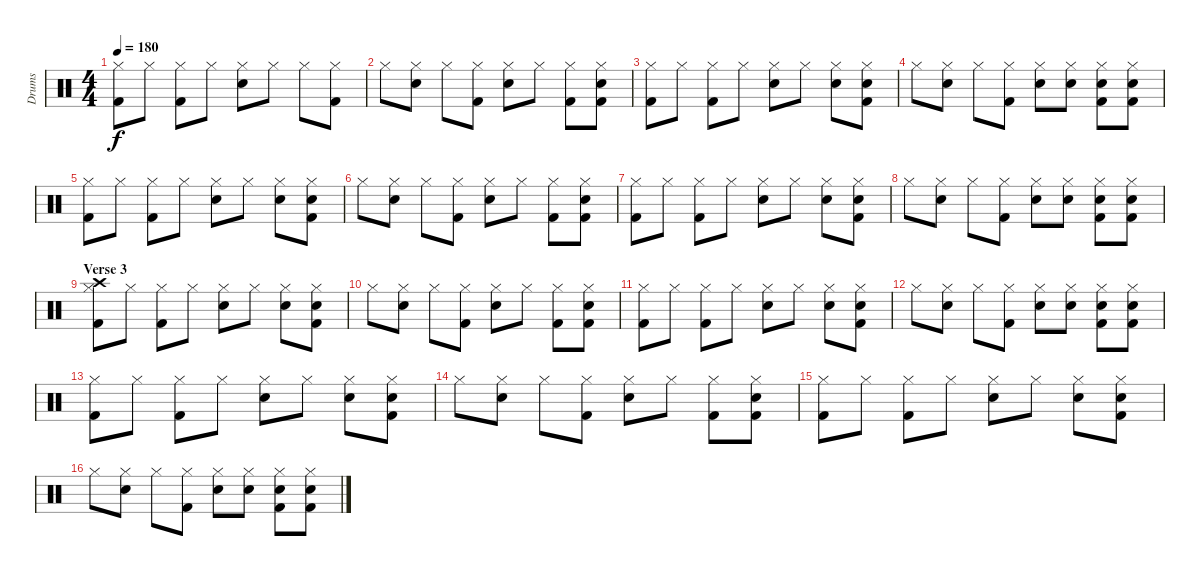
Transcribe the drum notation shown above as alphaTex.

\track ("Drums" "Drums") {instrument percussion}
\staff {score}
\articulation defaults
\ts (4 4)
\tempo 180
\clef neutral
\ks c
("Hi-Hat (closed)" "Kick (hit) 2").8{dy f} "Hi-Hat (closed)".8 ("Hi-Hat (closed)" "Kick (hit) 2").8 "Hi-Hat (closed)".8 ("Hi-Hat (closed)" "Snare (hit) 2").8 "Hi-Hat (closed)".8 "Hi-Hat (closed)".8 ("Hi-Hat (closed)" "Kick (hit) 2").8 |
"Hi-Hat (closed)".8 ("Hi-Hat (closed)" "Snare (hit) 2").8 "Hi-Hat (closed)".8 ("Hi-Hat (closed)" "Kick (hit) 2").8 ("Hi-Hat (closed)" "Snare (hit) 2").8 "Hi-Hat (closed)".8 ("Hi-Hat (closed)" "Kick (hit) 2").8 ("Hi-Hat (closed)" "Snare (hit) 2" "Kick (hit) 2").8 |
("Hi-Hat (closed)" "Kick (hit) 2").8 "Hi-Hat (closed)".8 ("Hi-Hat (closed)" "Kick (hit) 2").8 "Hi-Hat (closed)".8 ("Hi-Hat (closed)" "Snare (hit) 2").8 "Hi-Hat (closed)".8 ("Hi-Hat (closed)" "Snare (hit) 2").8 ("Hi-Hat (closed)" "Snare (hit) 2" "Kick (hit) 2").8 |
"Hi-Hat (closed)".8 ("Hi-Hat (closed)" "Snare (hit) 2").8 "Hi-Hat (closed)".8 ("Hi-Hat (closed)" "Kick (hit) 2").8 ("Hi-Hat (closed)" "Snare (hit) 2").8 ("Hi-Hat (closed)" "Snare (hit) 2").8 ("Hi-Hat (closed)" "Snare (hit) 2" "Kick (hit) 2").8 ("Hi-Hat (closed)" "Snare (hit) 2" "Kick (hit) 2").8 |
("Hi-Hat (closed)" "Kick (hit) 2").8 "Hi-Hat (closed)".8 ("Hi-Hat (closed)" "Kick (hit) 2").8 "Hi-Hat (closed)".8 ("Hi-Hat (closed)" "Snare (hit) 2").8 "Hi-Hat (closed)".8 ("Hi-Hat (closed)" "Snare (hit) 2").8 ("Hi-Hat (closed)" "Snare (hit) 2" "Kick (hit) 2").8 |
"Hi-Hat (closed)".8 ("Hi-Hat (closed)" "Snare (hit) 2").8 "Hi-Hat (closed)".8 ("Hi-Hat (closed)" "Kick (hit) 2").8 ("Hi-Hat (closed)" "Snare (hit) 2").8 "Hi-Hat (closed)".8 ("Hi-Hat (closed)" "Kick (hit) 2").8 ("Hi-Hat (closed)" "Snare (hit) 2" "Kick (hit) 2").8 |
("Hi-Hat (closed)" "Kick (hit) 2").8 "Hi-Hat (closed)".8 ("Hi-Hat (closed)" "Kick (hit) 2").8 "Hi-Hat (closed)".8 ("Hi-Hat (closed)" "Snare (hit) 2").8 "Hi-Hat (closed)".8 ("Hi-Hat (closed)" "Snare (hit) 2").8 ("Hi-Hat (closed)" "Snare (hit) 2" "Kick (hit) 2").8 |
"Hi-Hat (closed)".8 ("Hi-Hat (closed)" "Snare (hit) 2").8 "Hi-Hat (closed)".8 ("Hi-Hat (closed)" "Kick (hit) 2").8 ("Hi-Hat (closed)" "Snare (hit) 2").8 ("Hi-Hat (closed)" "Snare (hit) 2").8 ("Hi-Hat (closed)" "Snare (hit) 2" "Kick (hit) 2").8 ("Hi-Hat (closed)" "Snare (hit) 2" "Kick (hit) 2").8 |
\section ("" "Verse 3")
("Hi-Hat (closed)" "Kick (hit) 2" "Crash high (hit)").8 "Hi-Hat (closed)".8 ("Hi-Hat (closed)" "Kick (hit) 2").8 "Hi-Hat (closed)".8 ("Hi-Hat (closed)" "Snare (hit) 2").8 "Hi-Hat (closed)".8 ("Hi-Hat (closed)" "Snare (hit) 2").8 ("Hi-Hat (closed)" "Snare (hit) 2" "Kick (hit) 2").8 |
"Hi-Hat (closed)".8 ("Hi-Hat (closed)" "Snare (hit) 2").8 "Hi-Hat (closed)".8 ("Hi-Hat (closed)" "Kick (hit) 2").8 ("Hi-Hat (closed)" "Snare (hit) 2").8 "Hi-Hat (closed)".8 ("Hi-Hat (closed)" "Kick (hit) 2").8 ("Hi-Hat (closed)" "Snare (hit) 2" "Kick (hit) 2").8 |
("Hi-Hat (closed)" "Kick (hit) 2").8 "Hi-Hat (closed)".8 ("Hi-Hat (closed)" "Kick (hit) 2").8 "Hi-Hat (closed)".8 ("Hi-Hat (closed)" "Snare (hit) 2").8 "Hi-Hat (closed)".8 ("Hi-Hat (closed)" "Snare (hit) 2").8 ("Hi-Hat (closed)" "Snare (hit) 2" "Kick (hit) 2").8 |
"Hi-Hat (closed)".8 ("Hi-Hat (closed)" "Snare (hit) 2").8 "Hi-Hat (closed)".8 ("Hi-Hat (closed)" "Kick (hit) 2").8 ("Hi-Hat (closed)" "Snare (hit) 2").8 ("Hi-Hat (closed)" "Snare (hit) 2").8 ("Hi-Hat (closed)" "Snare (hit) 2" "Kick (hit) 2").8 ("Hi-Hat (closed)" "Snare (hit) 2" "Kick (hit) 2").8 |
("Hi-Hat (closed)" "Kick (hit) 2").8 "Hi-Hat (closed)".8 ("Hi-Hat (closed)" "Kick (hit) 2").8 "Hi-Hat (closed)".8 ("Hi-Hat (closed)" "Snare (hit) 2").8 "Hi-Hat (closed)".8 ("Hi-Hat (closed)" "Snare (hit) 2").8 ("Hi-Hat (closed)" "Snare (hit) 2" "Kick (hit) 2").8 |
"Hi-Hat (closed)".8 ("Hi-Hat (closed)" "Snare (hit) 2").8 "Hi-Hat (closed)".8 ("Hi-Hat (closed)" "Kick (hit) 2").8 ("Hi-Hat (closed)" "Snare (hit) 2").8 "Hi-Hat (closed)".8 ("Hi-Hat (closed)" "Kick (hit) 2").8 ("Hi-Hat (closed)" "Snare (hit) 2" "Kick (hit) 2").8 |
("Hi-Hat (closed)" "Kick (hit) 2").8 "Hi-Hat (closed)".8 ("Hi-Hat (closed)" "Kick (hit) 2").8 "Hi-Hat (closed)".8 ("Hi-Hat (closed)" "Snare (hit) 2").8 "Hi-Hat (closed)".8 ("Hi-Hat (closed)" "Snare (hit) 2").8 ("Hi-Hat (closed)" "Snare (hit) 2" "Kick (hit) 2").8 |
"Hi-Hat (closed)".8 ("Hi-Hat (closed)" "Snare (hit) 2").8 "Hi-Hat (closed)".8 ("Hi-Hat (closed)" "Kick (hit) 2").8 ("Hi-Hat (closed)" "Snare (hit) 2").8 ("Hi-Hat (closed)" "Snare (hit) 2").8 ("Hi-Hat (closed)" "Snare (hit) 2" "Kick (hit) 2").8 ("Hi-Hat (closed)" "Snare (hit) 2" "Kick (hit) 2").8
